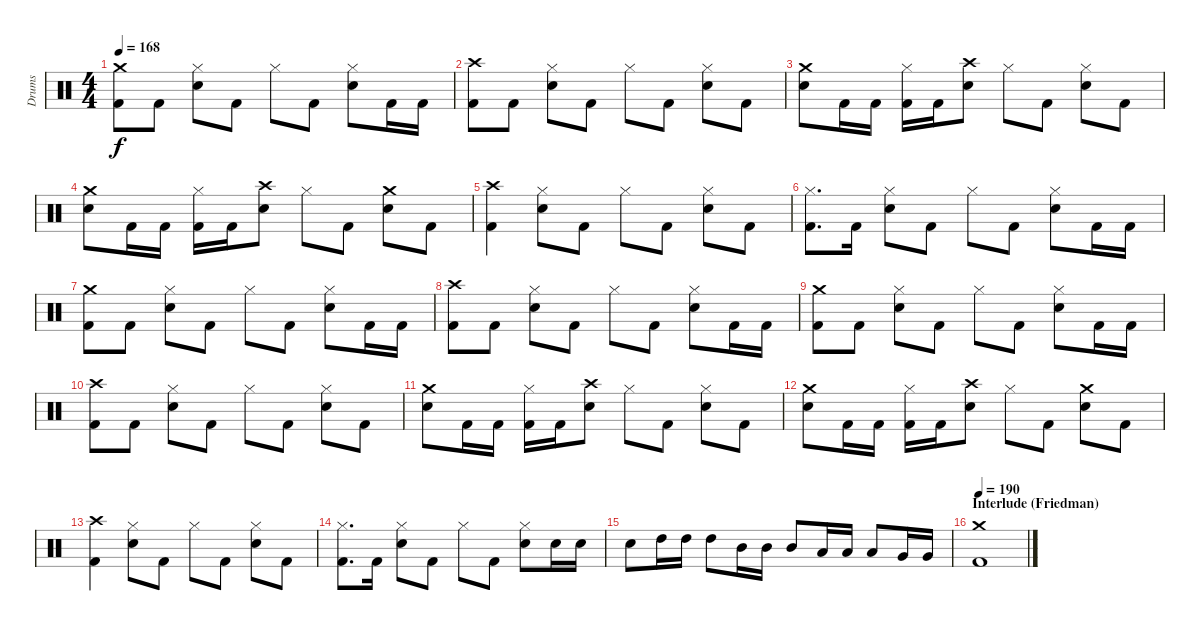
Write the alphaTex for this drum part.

\bracketExtendMode groupsimilarinstruments
\track ("Drumkit" "Drums") {solo instrument percussion}
\staff {score}
\articulation defaults
\ts (4 4)
\tempo 168
\clef neutral
\ks c
("Crash medium (hit)" "Kick (hit) 2").8{dy f} "Kick (hit) 2".8 ("Hi-Hat (closed)" "Snare (hit) 2").8 "Kick (hit) 2".8 "Hi-Hat (closed)".8 "Kick (hit) 2".8 ("Hi-Hat (closed)" "Snare (hit) 2").8 "Kick (hit) 2".16 "Kick (hit) 2".16 |
("Crash high (hit)" "Kick (hit) 2").8 "Kick (hit) 2".8 ("Hi-Hat (closed)" "Snare (hit) 2").8 "Kick (hit) 2".8 "Hi-Hat (closed)".8 "Kick (hit) 2".8 ("Hi-Hat (closed)" "Snare (hit) 2").8 "Kick (hit) 2".8 |
("Crash medium (hit)" "Snare (hit) 2").8 "Kick (hit) 2".16 "Kick (hit) 2".16 ("Hi-Hat (closed)" "Kick (hit) 2").16 "Kick (hit) 2".16 ("Crash high (hit)" "Snare (hit) 2").8 "Hi-Hat (closed)".8 "Kick (hit) 2".8 ("Hi-Hat (closed)" "Snare (hit) 2").8 "Kick (hit) 2".8 |
("Crash medium (hit)" "Snare (hit) 2").8 "Kick (hit) 2".16 "Kick (hit) 2".16 ("Hi-Hat (closed)" "Kick (hit) 2").16 "Kick (hit) 2".16 ("Crash high (hit)" "Snare (hit) 2").8 "Hi-Hat (closed)".8 "Kick (hit) 2".8 ("Crash medium (hit)" "Snare (hit) 2").8 "Kick (hit) 2".8 |
("Crash high (hit)" "Kick (hit) 2").4 ("Hi-Hat (closed)" "Snare (hit) 2").8 "Kick (hit) 2".8 "Hi-Hat (closed)".8 "Kick (hit) 2".8 ("Hi-Hat (closed)" "Snare (hit) 2").8 "Kick (hit) 2".8 |
("Hi-Hat (closed)" "Kick (hit) 2").8{d} "Kick (hit) 2".16 ("Hi-Hat (closed)" "Snare (hit) 2").8 "Kick (hit) 2".8 "Hi-Hat (closed)".8 "Kick (hit) 2".8 ("Hi-Hat (closed)" "Snare (hit) 2").8 "Kick (hit) 2".16 "Kick (hit) 2".16 |
("Crash medium (hit)" "Kick (hit) 2").8 "Kick (hit) 2".8 ("Hi-Hat (closed)" "Snare (hit) 2").8 "Kick (hit) 2".8 "Hi-Hat (closed)".8 "Kick (hit) 2".8 ("Hi-Hat (closed)" "Snare (hit) 2").8 "Kick (hit) 2".16 "Kick (hit) 2".16 |
("Crash high (hit)" "Kick (hit) 2").8 "Kick (hit) 2".8 ("Hi-Hat (closed)" "Snare (hit) 2").8 "Kick (hit) 2".8 "Hi-Hat (closed)".8 "Kick (hit) 2".8 ("Hi-Hat (closed)" "Snare (hit) 2").8 "Kick (hit) 2".16 "Kick (hit) 2".16 |
("Crash medium (hit)" "Kick (hit) 2").8 "Kick (hit) 2".8 ("Hi-Hat (closed)" "Snare (hit) 2").8 "Kick (hit) 2".8 "Hi-Hat (closed)".8 "Kick (hit) 2".8 ("Hi-Hat (closed)" "Snare (hit) 2").8 "Kick (hit) 2".16 "Kick (hit) 2".16 |
("Crash high (hit)" "Kick (hit) 2").8 "Kick (hit) 2".8 ("Hi-Hat (closed)" "Snare (hit) 2").8 "Kick (hit) 2".8 "Hi-Hat (closed)".8 "Kick (hit) 2".8 ("Hi-Hat (closed)" "Snare (hit) 2").8 "Kick (hit) 2".8 |
("Crash medium (hit)" "Snare (hit) 2").8 "Kick (hit) 2".16 "Kick (hit) 2".16 ("Hi-Hat (closed)" "Kick (hit) 2").16 "Kick (hit) 2".16 ("Crash high (hit)" "Snare (hit) 2").8 "Hi-Hat (closed)".8 "Kick (hit) 2".8 ("Hi-Hat (closed)" "Snare (hit) 2").8 "Kick (hit) 2".8 |
("Crash medium (hit)" "Snare (hit) 2").8 "Kick (hit) 2".16 "Kick (hit) 2".16 ("Hi-Hat (closed)" "Kick (hit) 2").16 "Kick (hit) 2".16 ("Crash high (hit)" "Snare (hit) 2").8 "Hi-Hat (closed)".8 "Kick (hit) 2".8 ("Crash medium (hit)" "Snare (hit) 2").8 "Kick (hit) 2".8 |
("Crash high (hit)" "Kick (hit) 2").4 ("Hi-Hat (closed)" "Snare (hit) 2").8 "Kick (hit) 2".8 "Hi-Hat (closed)".8 "Kick (hit) 2".8 ("Hi-Hat (closed)" "Snare (hit) 2").8 "Kick (hit) 2".8 |
("Hi-Hat (closed)" "Kick (hit) 2").8{d} "Kick (hit) 2".16 ("Hi-Hat (closed)" "Snare (hit) 2").8 "Kick (hit) 2".8 "Hi-Hat (closed)".8 "Kick (hit) 2".8 ("Hi-Hat (closed)" "Snare (hit) 2").8 "Snare (hit) 2".16 "Snare (hit) 2".16 |
"Snare (hit) 2".8 "High Tom (hit)".16 "High Tom (hit)".16 "High Tom (hit)".8 "Mid Tom (hit)".16 "Mid Tom (hit)".16 "Mid Tom (hit)".8 "Low Tom (hit)".16 "Low Tom (hit)".16 "Low Tom (hit)".8 "Very Low Tom (hit)".16 "Very Low Tom (hit)".16 |
\section ("" "Interlude (Friedman)")
\tempo 190
("Crash medium (hit)" "Kick (hit) 2").1
